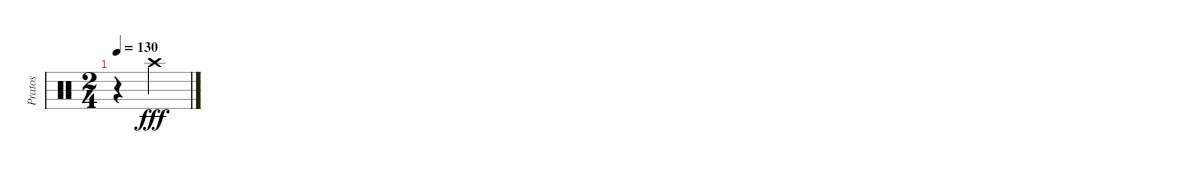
\track ("Pratos" "Pratos") {instrument percussion}
\staff {score}
\articulation defaults
\ts (2 4)
\tempo 130
\clef neutral
\ks c
r.4{dy ff} "Crash high (hit)".4{dy fff}
